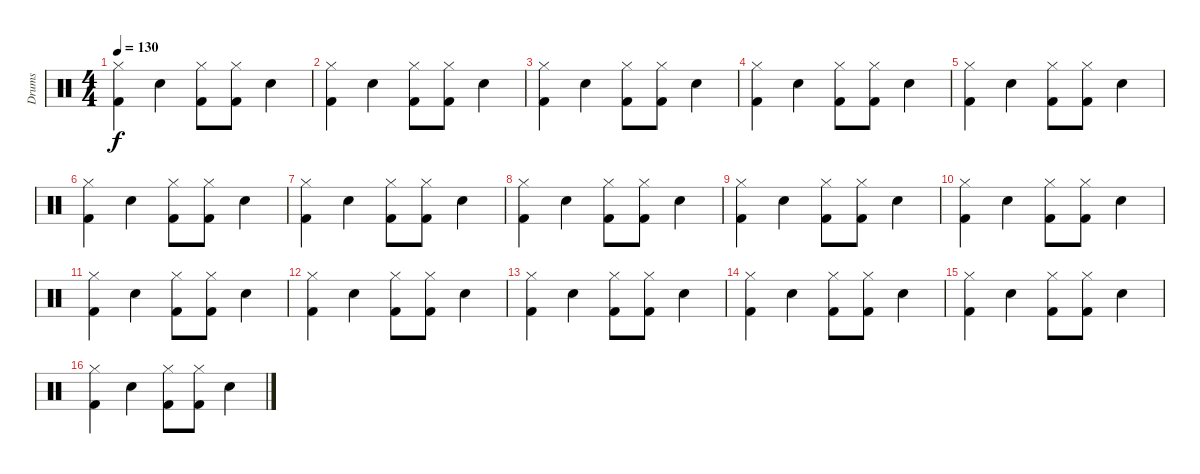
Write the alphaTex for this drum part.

\track ("Drums" "Drums") {instrument percussion}
\staff {score}
\articulation defaults
\ts (4 4)
\tempo 130
\clef neutral
\ks c
("Hi-Hat (closed)" "Kick (hit) 2").4{dy f} "Electric Snare (hit)".4 ("Kick (hit) 2" "Hi-Hat (closed)").8 ("Kick (hit) 2" "Hi-Hat (closed)").8 "Electric Snare (hit)".4 |
("Hi-Hat (closed)" "Kick (hit) 2").4 "Electric Snare (hit)".4 ("Kick (hit) 2" "Hi-Hat (closed)").8 ("Kick (hit) 2" "Hi-Hat (closed)").8 "Electric Snare (hit)".4 |
("Hi-Hat (closed)" "Kick (hit) 2").4 "Electric Snare (hit)".4 ("Kick (hit) 2" "Hi-Hat (closed)").8 ("Kick (hit) 2" "Hi-Hat (closed)").8 "Electric Snare (hit)".4 |
("Hi-Hat (closed)" "Kick (hit) 2").4 "Electric Snare (hit)".4 ("Kick (hit) 2" "Hi-Hat (closed)").8 ("Kick (hit) 2" "Hi-Hat (closed)").8 "Electric Snare (hit)".4 |
("Hi-Hat (closed)" "Kick (hit) 2").4 "Electric Snare (hit)".4 ("Kick (hit) 2" "Hi-Hat (closed)").8 ("Kick (hit) 2" "Hi-Hat (closed)").8 "Electric Snare (hit)".4 |
("Hi-Hat (closed)" "Kick (hit) 2").4 "Electric Snare (hit)".4 ("Kick (hit) 2" "Hi-Hat (closed)").8 ("Kick (hit) 2" "Hi-Hat (closed)").8 "Electric Snare (hit)".4 |
("Hi-Hat (closed)" "Kick (hit) 2").4 "Electric Snare (hit)".4 ("Kick (hit) 2" "Hi-Hat (closed)").8 ("Kick (hit) 2" "Hi-Hat (closed)").8 "Electric Snare (hit)".4 |
("Hi-Hat (closed)" "Kick (hit) 2").4 "Electric Snare (hit)".4 ("Kick (hit) 2" "Hi-Hat (closed)").8 ("Kick (hit) 2" "Hi-Hat (closed)").8 "Electric Snare (hit)".4 |
("Hi-Hat (closed)" "Kick (hit) 2").4 "Electric Snare (hit)".4 ("Kick (hit) 2" "Hi-Hat (closed)").8 ("Kick (hit) 2" "Hi-Hat (closed)").8 "Electric Snare (hit)".4 |
("Hi-Hat (closed)" "Kick (hit) 2").4 "Electric Snare (hit)".4 ("Kick (hit) 2" "Hi-Hat (closed)").8 ("Kick (hit) 2" "Hi-Hat (closed)").8 "Electric Snare (hit)".4 |
("Hi-Hat (closed)" "Kick (hit) 2").4 "Electric Snare (hit)".4 ("Kick (hit) 2" "Hi-Hat (closed)").8 ("Kick (hit) 2" "Hi-Hat (closed)").8 "Electric Snare (hit)".4 |
("Hi-Hat (closed)" "Kick (hit) 2").4 "Electric Snare (hit)".4 ("Kick (hit) 2" "Hi-Hat (closed)").8 ("Kick (hit) 2" "Hi-Hat (closed)").8 "Electric Snare (hit)".4 |
("Hi-Hat (closed)" "Kick (hit) 2").4 "Electric Snare (hit)".4 ("Kick (hit) 2" "Hi-Hat (closed)").8 ("Kick (hit) 2" "Hi-Hat (closed)").8 "Electric Snare (hit)".4 |
("Hi-Hat (closed)" "Kick (hit) 2").4 "Electric Snare (hit)".4 ("Kick (hit) 2" "Hi-Hat (closed)").8 ("Kick (hit) 2" "Hi-Hat (closed)").8 "Electric Snare (hit)".4 |
("Hi-Hat (closed)" "Kick (hit) 2").4 "Electric Snare (hit)".4 ("Kick (hit) 2" "Hi-Hat (closed)").8 ("Kick (hit) 2" "Hi-Hat (closed)").8 "Electric Snare (hit)".4 |
("Hi-Hat (closed)" "Kick (hit) 2").4 "Electric Snare (hit)".4 ("Kick (hit) 2" "Hi-Hat (closed)").8 ("Kick (hit) 2" "Hi-Hat (closed)").8 "Electric Snare (hit)".4
